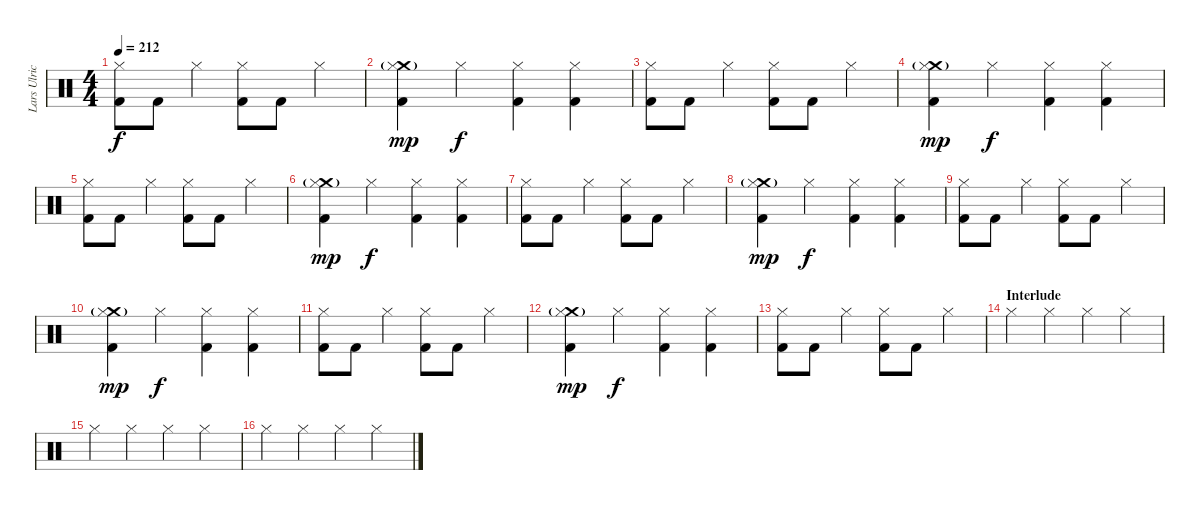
\track ("Lars Ulrich" "Lars Ulric") {instrument percussion}
\staff {score}
\articulation defaults
\ts (4 4)
\tempo 212
\clef neutral
\ks c
("Hi-Hat (closed)" "Kick (hit) 2").8{dy f} "Kick (hit) 2".8 "Hi-Hat (closed)".4 ("Hi-Hat (closed)" "Kick (hit) 2").8 "Kick (hit) 2".8 "Hi-Hat (closed)".4 |
("Crash medium (hit)"{g} "Hi-Hat (closed)" "Kick (hit) 2").4{dy mp} "Hi-Hat (closed)".4{dy f} ("Hi-Hat (closed)" "Kick (hit) 2").4 ("Hi-Hat (closed)" "Kick (hit) 2").4 |
("Hi-Hat (closed)" "Kick (hit) 2").8 "Kick (hit) 2".8 "Hi-Hat (closed)".4 ("Hi-Hat (closed)" "Kick (hit) 2").8 "Kick (hit) 2".8 "Hi-Hat (closed)".4 |
("Crash medium (hit)"{g} "Hi-Hat (closed)" "Kick (hit) 2").4{dy mp} "Hi-Hat (closed)".4{dy f} ("Hi-Hat (closed)" "Kick (hit) 2").4 ("Hi-Hat (closed)" "Kick (hit) 2").4 |
("Hi-Hat (closed)" "Kick (hit) 2").8 "Kick (hit) 2".8 "Hi-Hat (closed)".4 ("Hi-Hat (closed)" "Kick (hit) 2").8 "Kick (hit) 2".8 "Hi-Hat (closed)".4 |
("Crash medium (hit)"{g} "Hi-Hat (closed)" "Kick (hit) 2").4{dy mp} "Hi-Hat (closed)".4{dy f} ("Hi-Hat (closed)" "Kick (hit) 2").4 ("Hi-Hat (closed)" "Kick (hit) 2").4 |
("Hi-Hat (closed)" "Kick (hit) 2").8 "Kick (hit) 2".8 "Hi-Hat (closed)".4 ("Hi-Hat (closed)" "Kick (hit) 2").8 "Kick (hit) 2".8 "Hi-Hat (closed)".4 |
("Crash medium (hit)"{g} "Hi-Hat (closed)" "Kick (hit) 2").4{dy mp} "Hi-Hat (closed)".4{dy f} ("Hi-Hat (closed)" "Kick (hit) 2").4 ("Hi-Hat (closed)" "Kick (hit) 2").4 |
("Hi-Hat (closed)" "Kick (hit) 2").8 "Kick (hit) 2".8 "Hi-Hat (closed)".4 ("Hi-Hat (closed)" "Kick (hit) 2").8 "Kick (hit) 2".8 "Hi-Hat (closed)".4 |
("Crash medium (hit)"{g} "Hi-Hat (closed)" "Kick (hit) 2").4{dy mp} "Hi-Hat (closed)".4{dy f} ("Hi-Hat (closed)" "Kick (hit) 2").4 ("Hi-Hat (closed)" "Kick (hit) 2").4 |
("Hi-Hat (closed)" "Kick (hit) 2").8 "Kick (hit) 2".8 "Hi-Hat (closed)".4 ("Hi-Hat (closed)" "Kick (hit) 2").8 "Kick (hit) 2".8 "Hi-Hat (closed)".4 |
("Crash medium (hit)"{g} "Hi-Hat (closed)" "Kick (hit) 2").4{dy mp} "Hi-Hat (closed)".4{dy f} ("Hi-Hat (closed)" "Kick (hit) 2").4 ("Hi-Hat (closed)" "Kick (hit) 2").4 |
("Hi-Hat (closed)" "Kick (hit) 2").8 "Kick (hit) 2".8 "Hi-Hat (closed)".4 ("Hi-Hat (closed)" "Kick (hit) 2").8 "Kick (hit) 2".8 "Hi-Hat (closed)".4 |
\section ("" "Interlude")
"Hi-Hat (closed)".4 "Hi-Hat (closed)".4 "Hi-Hat (closed)".4 "Hi-Hat (closed)".4 |
"Hi-Hat (closed)".4 "Hi-Hat (closed)".4 "Hi-Hat (closed)".4 "Hi-Hat (closed)".4 |
"Hi-Hat (closed)".4 "Hi-Hat (closed)".4 "Hi-Hat (closed)".4 "Hi-Hat (closed)".4
